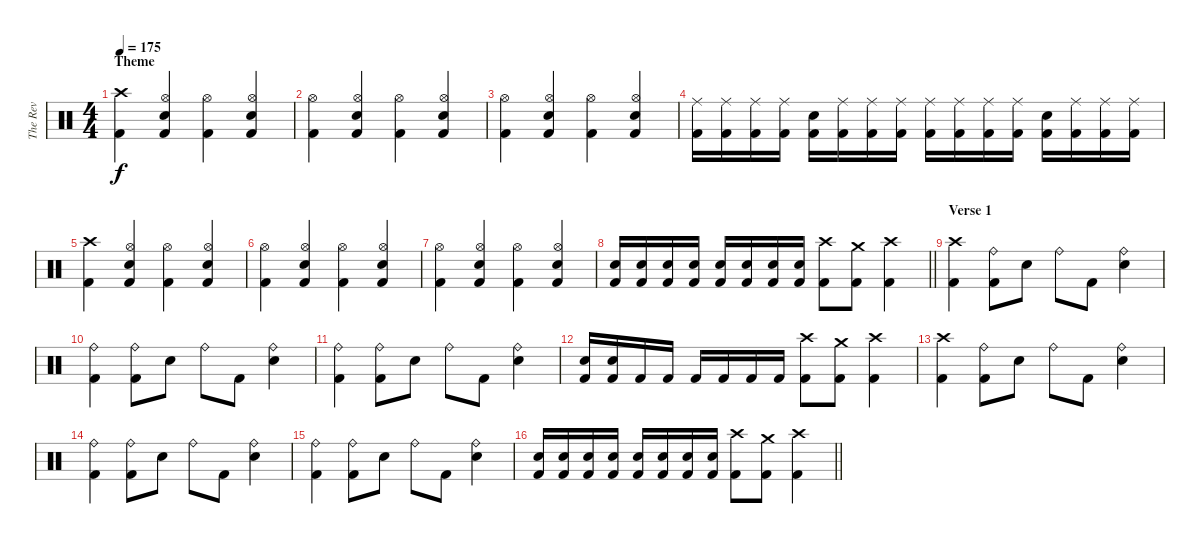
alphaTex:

\track ("The Rev" "The Rev") {instrument percussion}
\staff {score}
\articulation defaults
\ts (4 4)
\section ("" "Theme")
\tempo 175
\clef neutral
\ks c
("Crash high (hit)" "Kick (hit) 2").4{dy f} ("Hi-Hat (open)" "Snare (hit) 2" "Kick (hit) 2").4 ("Hi-Hat (open)" "Kick (hit) 2").4 ("Hi-Hat (open)" "Snare (hit) 2" "Kick (hit) 2").4 |
("Hi-Hat (open)" "Kick (hit) 2").4 ("Hi-Hat (open)" "Snare (hit) 2" "Kick (hit) 2").4 ("Hi-Hat (open)" "Kick (hit) 2").4 ("Hi-Hat (open)" "Snare (hit) 2" "Kick (hit) 2").4 |
("Hi-Hat (open)" "Kick (hit) 2").4 ("Hi-Hat (open)" "Snare (hit) 2" "Kick (hit) 2").4 ("Hi-Hat (open)" "Kick (hit) 2").4 ("Hi-Hat (open)" "Snare (hit) 2" "Kick (hit) 2").4 |
("Ride (middle)" "Kick (hit) 2").16 ("Ride (middle)" "Kick (hit) 2").16 ("Ride (middle)" "Kick (hit) 2").16 ("Ride (middle)" "Kick (hit) 2").16 ("Snare (hit) 2" "Kick (hit) 2").16 ("Ride (middle)" "Kick (hit) 2").16 ("Ride (middle)" "Kick (hit) 2").16 ("Ride (middle)" "Kick (hit) 2").16 ("Ride (middle)" "Kick (hit) 2").16 ("Ride (middle)" "Kick (hit) 2").16 ("Ride (middle)" "Kick (hit) 2").16 ("Ride (middle)" "Kick (hit) 2").16 ("Snare (hit) 2" "Kick (hit) 2").16 ("Ride (middle)" "Kick (hit) 2").16 ("Ride (middle)" "Kick (hit) 2").16 ("Ride (middle)" "Kick (hit) 2").16 |
("Crash high (hit)" "Kick (hit) 2").4 ("Hi-Hat (open)" "Snare (hit) 2" "Kick (hit) 2").4 ("Hi-Hat (open)" "Kick (hit) 2").4 ("Hi-Hat (open)" "Snare (hit) 2" "Kick (hit) 2").4 |
("Hi-Hat (open)" "Kick (hit) 2").4 ("Hi-Hat (open)" "Snare (hit) 2" "Kick (hit) 2").4 ("Hi-Hat (open)" "Kick (hit) 2").4 ("Hi-Hat (open)" "Snare (hit) 2" "Kick (hit) 2").4 |
("Hi-Hat (open)" "Kick (hit) 2").4 ("Hi-Hat (open)" "Snare (hit) 2" "Kick (hit) 2").4 ("Hi-Hat (open)" "Kick (hit) 2").4 ("Hi-Hat (open)" "Snare (hit) 2" "Kick (hit) 2").4 |
\barLineRight lightlight
("Snare (hit) 2" "Kick (hit) 2").16 ("Snare (hit) 2" "Kick (hit) 2").16 ("Snare (hit) 2" "Kick (hit) 2").16 ("Snare (hit) 2" "Kick (hit) 2").16 ("Snare (hit) 2" "Kick (hit) 2").16 ("Snare (hit) 2" "Kick (hit) 2").16 ("Snare (hit) 2" "Kick (hit) 2").16 ("Snare (hit) 2" "Kick (hit) 2").16 ("Crash high (hit)" "Kick (hit) 2").8 ("Crash medium (hit)" "Kick (hit) 2").8 ("Crash high (hit)" "Kick (hit) 2").4 |
\section ("" "Verse 1")
("Crash high (hit)" "Kick (hit) 2").4 ("Ride (bell)" "Kick (hit) 2").8 "Snare (hit) 2".8 "Ride (bell)".8 "Kick (hit) 2".8 ("Ride (bell)" "Snare (hit) 2").4 |
("Ride (bell)" "Kick (hit) 2").4 ("Ride (bell)" "Kick (hit) 2").8 "Snare (hit) 2".8 "Ride (bell)".8 "Kick (hit) 2".8 ("Ride (bell)" "Snare (hit) 2").4 |
("Ride (bell)" "Kick (hit) 2").4 ("Ride (bell)" "Kick (hit) 2").8 "Snare (hit) 2".8 "Ride (bell)".8 "Kick (hit) 2".8 ("Ride (bell)" "Snare (hit) 2").4 |
("Snare (hit) 2" "Kick (hit) 2").16 ("Snare (hit) 2" "Kick (hit) 2").16 "Kick (hit) 2".16 "Kick (hit) 2".16 "Kick (hit) 2".16 "Kick (hit) 2".16 "Kick (hit) 2".16 "Kick (hit) 2".16 ("Crash high (hit)" "Kick (hit) 2").8 ("Crash medium (hit)" "Kick (hit) 2").8 ("Crash high (hit)" "Kick (hit) 2").4 |
("Crash high (hit)" "Kick (hit) 2").4 ("Ride (bell)" "Kick (hit) 2").8 "Snare (hit) 2".8 "Ride (bell)".8 "Kick (hit) 2".8 ("Ride (bell)" "Snare (hit) 2").4 |
("Ride (bell)" "Kick (hit) 2").4 ("Ride (bell)" "Kick (hit) 2").8 "Snare (hit) 2".8 "Ride (bell)".8 "Kick (hit) 2".8 ("Ride (bell)" "Snare (hit) 2").4 |
("Ride (bell)" "Kick (hit) 2").4 ("Ride (bell)" "Kick (hit) 2").8 "Snare (hit) 2".8 "Ride (bell)".8 "Kick (hit) 2".8 ("Ride (bell)" "Snare (hit) 2").4 |
\barLineRight lightlight
("Snare (hit) 2" "Kick (hit) 2").16 ("Snare (hit) 2" "Kick (hit) 2").16 ("Snare (hit) 2" "Kick (hit) 2").16 ("Snare (hit) 2" "Kick (hit) 2").16 ("Snare (hit) 2" "Kick (hit) 2").16 ("Snare (hit) 2" "Kick (hit) 2").16 ("Snare (hit) 2" "Kick (hit) 2").16 ("Snare (hit) 2" "Kick (hit) 2").16 ("Crash high (hit)" "Kick (hit) 2").8 ("Crash medium (hit)" "Kick (hit) 2").8 ("Crash high (hit)" "Kick (hit) 2").4
